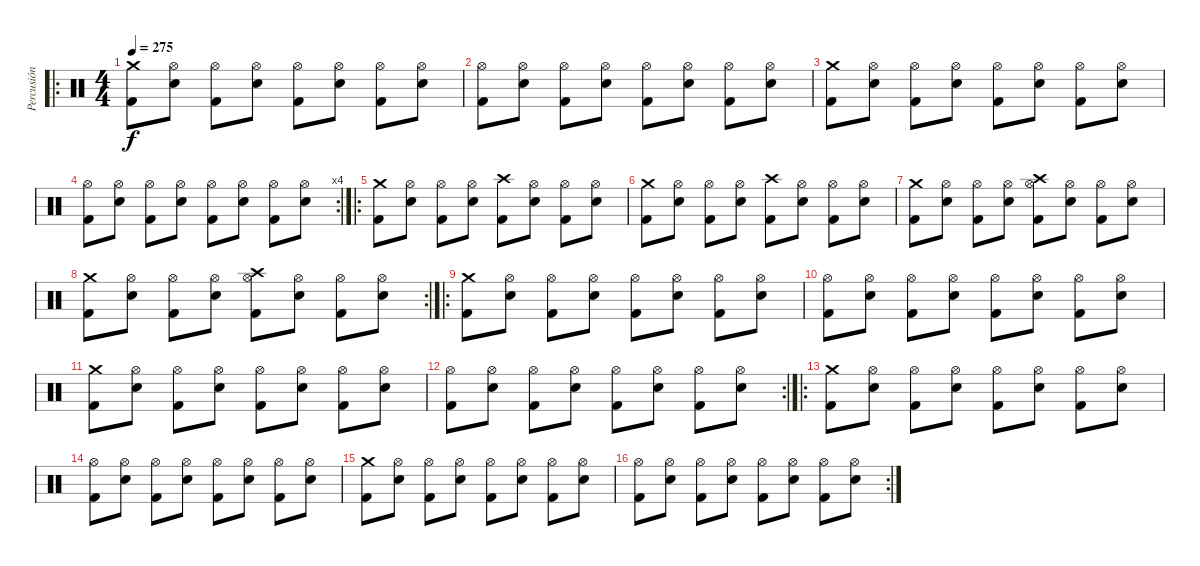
\track ("Percusión" "Percusión") {instrument percussion}
\staff {score}
\articulation defaults
\ro
\ts (4 4)
\tempo 275
\clef neutral
\ks c
("Crash medium (hit)" "Kick (hit) 2").8{dy f} ("Hi-Hat (open)" "Electric Snare (hit)").8 ("Hi-Hat (open)" "Kick (hit) 2").8 ("Hi-Hat (open)" "Electric Snare (hit)").8 ("Hi-Hat (open)" "Kick (hit) 2").8 ("Hi-Hat (open)" "Electric Snare (hit)").8 ("Hi-Hat (open)" "Kick (hit) 2").8 ("Hi-Hat (open)" "Electric Snare (hit)").8 |
("Hi-Hat (open)" "Kick (hit) 2").8 ("Hi-Hat (open)" "Electric Snare (hit)").8 ("Hi-Hat (open)" "Kick (hit) 2").8 ("Hi-Hat (open)" "Electric Snare (hit)").8 ("Hi-Hat (open)" "Kick (hit) 2").8 ("Hi-Hat (open)" "Electric Snare (hit)").8 ("Hi-Hat (open)" "Kick (hit) 2").8 ("Hi-Hat (open)" "Electric Snare (hit)").8 |
("Crash medium (hit)" "Kick (hit) 2").8 ("Hi-Hat (open)" "Electric Snare (hit)").8 ("Hi-Hat (open)" "Kick (hit) 2").8 ("Hi-Hat (open)" "Electric Snare (hit)").8 ("Hi-Hat (open)" "Kick (hit) 2").8 ("Hi-Hat (open)" "Electric Snare (hit)").8 ("Hi-Hat (open)" "Kick (hit) 2").8 ("Hi-Hat (open)" "Electric Snare (hit)").8 |
\rc 4
("Hi-Hat (open)" "Kick (hit) 2").8 ("Hi-Hat (open)" "Electric Snare (hit)").8 ("Hi-Hat (open)" "Kick (hit) 2").8 ("Hi-Hat (open)" "Electric Snare (hit)").8 ("Hi-Hat (open)" "Kick (hit) 2").8 ("Hi-Hat (open)" "Electric Snare (hit)").8 ("Hi-Hat (open)" "Kick (hit) 2").8 ("Hi-Hat (open)" "Electric Snare (hit)").8 |
\ro
("Crash medium (hit)" "Kick (hit) 2").8 ("Hi-Hat (open)" "Electric Snare (hit)").8 ("Hi-Hat (open)" "Kick (hit) 2").8 ("Hi-Hat (open)" "Electric Snare (hit)").8 ("Crash high (hit)" "Kick (hit) 2").8 ("Hi-Hat (open)" "Electric Snare (hit)").8 ("Hi-Hat (open)" "Kick (hit) 2").8 ("Hi-Hat (open)" "Electric Snare (hit)").8 |
("Crash medium (hit)" "Kick (hit) 2").8 ("Hi-Hat (open)" "Electric Snare (hit)").8 ("Hi-Hat (open)" "Kick (hit) 2").8 ("Hi-Hat (open)" "Electric Snare (hit)").8 ("Crash high (hit)" "Kick (hit) 2").8 ("Hi-Hat (open)" "Electric Snare (hit)").8 ("Hi-Hat (open)" "Kick (hit) 2").8 ("Hi-Hat (open)" "Electric Snare (hit)").8 |
("Crash medium (hit)" "Kick (hit) 2").8 ("Hi-Hat (open)" "Electric Snare (hit)").8 ("Hi-Hat (open)" "Kick (hit) 2").8 ("Hi-Hat (open)" "Electric Snare (hit)").8 ("Crash high (hit)" "Hi-Hat (open)" "Kick (hit) 2").8 ("Hi-Hat (open)" "Electric Snare (hit)").8 ("Hi-Hat (open)" "Kick (hit) 2").8 ("Hi-Hat (open)" "Electric Snare (hit)").8 |
\rc 2
("Crash medium (hit)" "Kick (hit) 2").8 ("Hi-Hat (open)" "Electric Snare (hit)").8 ("Hi-Hat (open)" "Kick (hit) 2").8 ("Hi-Hat (open)" "Electric Snare (hit)").8 ("Crash high (hit)" "Hi-Hat (open)" "Kick (hit) 2").8 ("Hi-Hat (open)" "Electric Snare (hit)").8 ("Hi-Hat (open)" "Kick (hit) 2").8 ("Hi-Hat (open)" "Electric Snare (hit)").8 |
\ro
("Crash medium (hit)" "Kick (hit) 2").8 ("Hi-Hat (open)" "Electric Snare (hit)").8 ("Hi-Hat (open)" "Kick (hit) 2").8 ("Hi-Hat (open)" "Electric Snare (hit)").8 ("Hi-Hat (open)" "Kick (hit) 2").8 ("Hi-Hat (open)" "Electric Snare (hit)").8 ("Hi-Hat (open)" "Kick (hit) 2").8 ("Hi-Hat (open)" "Electric Snare (hit)").8 |
("Hi-Hat (open)" "Kick (hit) 2").8 ("Hi-Hat (open)" "Electric Snare (hit)").8 ("Hi-Hat (open)" "Kick (hit) 2").8 ("Hi-Hat (open)" "Electric Snare (hit)").8 ("Hi-Hat (open)" "Kick (hit) 2").8 ("Hi-Hat (open)" "Electric Snare (hit)").8 ("Hi-Hat (open)" "Kick (hit) 2").8 ("Hi-Hat (open)" "Electric Snare (hit)").8 |
("Crash medium (hit)" "Kick (hit) 2").8 ("Hi-Hat (open)" "Electric Snare (hit)").8 ("Hi-Hat (open)" "Kick (hit) 2").8 ("Hi-Hat (open)" "Electric Snare (hit)").8 ("Hi-Hat (open)" "Kick (hit) 2").8 ("Hi-Hat (open)" "Electric Snare (hit)").8 ("Hi-Hat (open)" "Kick (hit) 2").8 ("Hi-Hat (open)" "Electric Snare (hit)").8 |
\rc 2
("Hi-Hat (open)" "Kick (hit) 2").8 ("Hi-Hat (open)" "Electric Snare (hit)").8 ("Hi-Hat (open)" "Kick (hit) 2").8 ("Hi-Hat (open)" "Electric Snare (hit)").8 ("Hi-Hat (open)" "Kick (hit) 2").8 ("Hi-Hat (open)" "Electric Snare (hit)").8 ("Hi-Hat (open)" "Kick (hit) 2").8 ("Hi-Hat (open)" "Electric Snare (hit)").8 |
\ro
("Crash medium (hit)" "Kick (hit) 2").8 ("Hi-Hat (open)" "Electric Snare (hit)").8 ("Hi-Hat (open)" "Kick (hit) 2").8 ("Hi-Hat (open)" "Electric Snare (hit)").8 ("Hi-Hat (open)" "Kick (hit) 2").8 ("Hi-Hat (open)" "Electric Snare (hit)").8 ("Hi-Hat (open)" "Kick (hit) 2").8 ("Hi-Hat (open)" "Electric Snare (hit)").8 |
("Hi-Hat (open)" "Kick (hit) 2").8 ("Hi-Hat (open)" "Electric Snare (hit)").8 ("Hi-Hat (open)" "Kick (hit) 2").8 ("Hi-Hat (open)" "Electric Snare (hit)").8 ("Hi-Hat (open)" "Kick (hit) 2").8 ("Hi-Hat (open)" "Electric Snare (hit)").8 ("Hi-Hat (open)" "Kick (hit) 2").8 ("Hi-Hat (open)" "Electric Snare (hit)").8 |
("Crash medium (hit)" "Kick (hit) 2").8 ("Hi-Hat (open)" "Electric Snare (hit)").8 ("Hi-Hat (open)" "Kick (hit) 2").8 ("Hi-Hat (open)" "Electric Snare (hit)").8 ("Hi-Hat (open)" "Kick (hit) 2").8 ("Hi-Hat (open)" "Electric Snare (hit)").8 ("Hi-Hat (open)" "Kick (hit) 2").8 ("Hi-Hat (open)" "Electric Snare (hit)").8 |
\rc 2
("Hi-Hat (open)" "Kick (hit) 2").8 ("Hi-Hat (open)" "Electric Snare (hit)").8 ("Hi-Hat (open)" "Kick (hit) 2").8 ("Hi-Hat (open)" "Electric Snare (hit)").8 ("Hi-Hat (open)" "Kick (hit) 2").8 ("Hi-Hat (open)" "Electric Snare (hit)").8 ("Hi-Hat (open)" "Kick (hit) 2").8 ("Hi-Hat (open)" "Electric Snare (hit)").8
